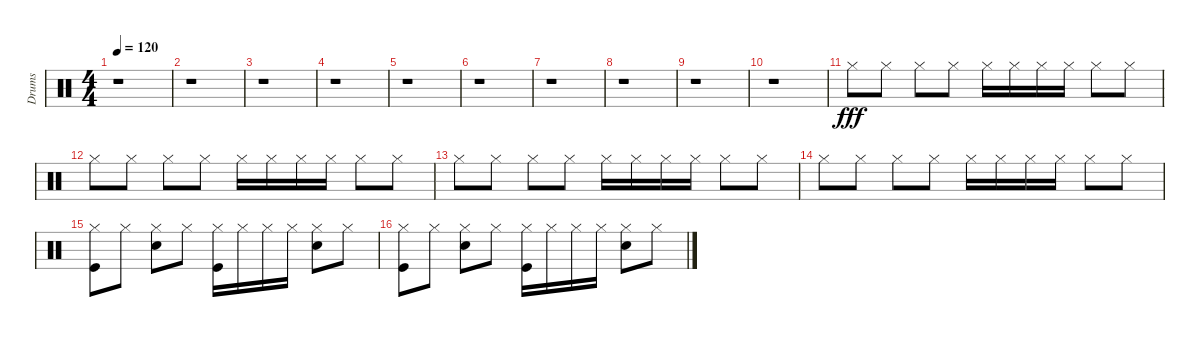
\track ("Drums" "Drums") {instrument percussion}
\staff {score}
\articulation defaults
\ts (4 4)
\tempo 120
\clef neutral
\ks c
r.1{dy fff} |
r.1 |
r.1 |
r.1 |
r.1 |
r.1 |
r.1 |
r.1 |
r.1 |
r.1 |
"Hi-Hat (closed)".8{balance 0} "Hi-Hat (closed)".8 "Hi-Hat (closed)".8 "Hi-Hat (closed)".8 "Hi-Hat (closed)".16 "Hi-Hat (closed)".16 "Hi-Hat (closed)".16 "Hi-Hat (closed)".16 "Hi-Hat (closed)".8 "Hi-Hat (closed)".8 |
"Hi-Hat (closed)".8 "Hi-Hat (closed)".8 "Hi-Hat (closed)".8 "Hi-Hat (closed)".8 "Hi-Hat (closed)".16 "Hi-Hat (closed)".16 "Hi-Hat (closed)".16 "Hi-Hat (closed)".16 "Hi-Hat (closed)".8 "Hi-Hat (closed)".8 |
"Hi-Hat (closed)".8 "Hi-Hat (closed)".8 "Hi-Hat (closed)".8 "Hi-Hat (closed)".8 "Hi-Hat (closed)".16 "Hi-Hat (closed)".16 "Hi-Hat (closed)".16 "Hi-Hat (closed)".16 "Hi-Hat (closed)".8 "Hi-Hat (closed)".8 |
"Hi-Hat (closed)".8 "Hi-Hat (closed)".8 "Hi-Hat (closed)".8 "Hi-Hat (closed)".8 "Hi-Hat (closed)".16 "Hi-Hat (closed)".16 "Hi-Hat (closed)".16 "Hi-Hat (closed)".16 "Hi-Hat (closed)".8 "Hi-Hat (closed)".8 |
("Kick (hit)" "Hi-Hat (closed)").8{balance 8} "Hi-Hat (closed)".8 ("Snare (hit) 2" "Hi-Hat (closed)").8 "Hi-Hat (closed)".8 ("Kick (hit)" "Hi-Hat (closed)").16 "Hi-Hat (closed)".16 "Hi-Hat (closed)".16 "Hi-Hat (closed)".16 ("Snare (hit) 2" "Hi-Hat (closed)").8 "Hi-Hat (closed)".8 |
("Kick (hit)" "Hi-Hat (closed)").8 "Hi-Hat (closed)".8 ("Snare (hit) 2" "Hi-Hat (closed)").8 "Hi-Hat (closed)".8 ("Kick (hit)" "Hi-Hat (closed)").16 "Hi-Hat (closed)".16 "Hi-Hat (closed)".16 "Hi-Hat (closed)".16 ("Snare (hit) 2" "Hi-Hat (closed)").8 "Hi-Hat (closed)".8
